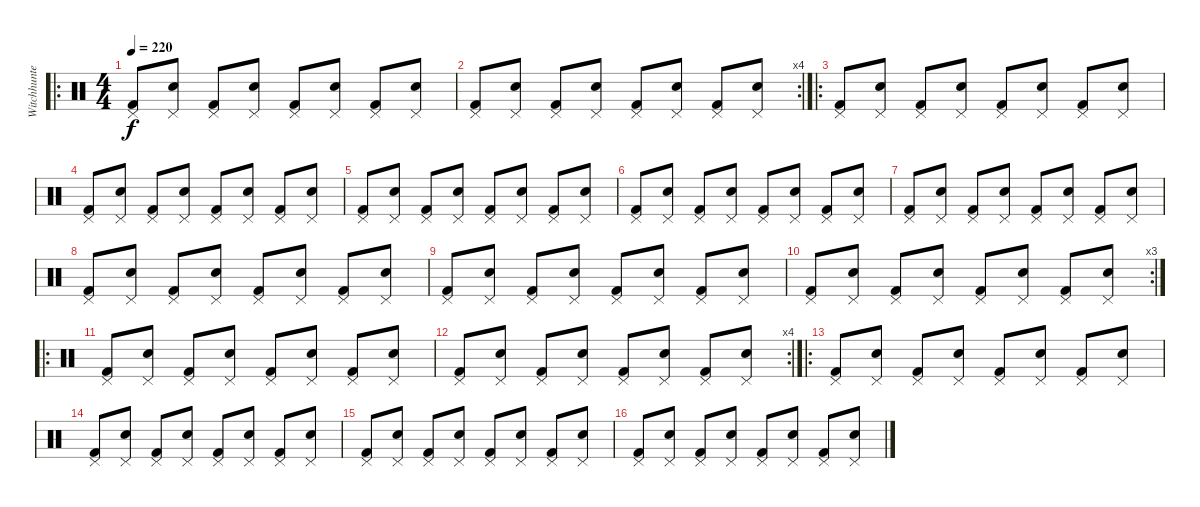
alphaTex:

\track ("Witchhunter" "Witchhunte") {instrument percussion}
\staff {score}
\articulation defaults
\ro
\ts (4 4)
\tempo 220
\clef neutral
\ks c
("Kick (hit) 2" "Pedal Hi-Hat (hit)").8{dy f} ("Snare (hit) 2" "Pedal Hi-Hat (hit)").8 ("Kick (hit) 2" "Pedal Hi-Hat (hit)").8 ("Snare (hit) 2" "Pedal Hi-Hat (hit)").8 ("Kick (hit) 2" "Pedal Hi-Hat (hit)").8 ("Snare (hit) 2" "Pedal Hi-Hat (hit)").8 ("Kick (hit) 2" "Pedal Hi-Hat (hit)").8 ("Snare (hit) 2" "Pedal Hi-Hat (hit)").8 |
\rc 4
("Kick (hit) 2" "Pedal Hi-Hat (hit)").8 ("Snare (hit) 2" "Pedal Hi-Hat (hit)").8 ("Kick (hit) 2" "Pedal Hi-Hat (hit)").8 ("Snare (hit) 2" "Pedal Hi-Hat (hit)").8 ("Kick (hit) 2" "Pedal Hi-Hat (hit)").8 ("Snare (hit) 2" "Pedal Hi-Hat (hit)").8 ("Kick (hit) 2" "Pedal Hi-Hat (hit)").8 ("Snare (hit) 2" "Pedal Hi-Hat (hit)").8 |
\ro
("Kick (hit) 2" "Pedal Hi-Hat (hit)").8 ("Snare (hit) 2" "Pedal Hi-Hat (hit)").8 ("Kick (hit) 2" "Pedal Hi-Hat (hit)").8 ("Snare (hit) 2" "Pedal Hi-Hat (hit)").8 ("Kick (hit) 2" "Pedal Hi-Hat (hit)").8 ("Snare (hit) 2" "Pedal Hi-Hat (hit)").8 ("Kick (hit) 2" "Pedal Hi-Hat (hit)").8 ("Snare (hit) 2" "Pedal Hi-Hat (hit)").8 |
("Kick (hit) 2" "Pedal Hi-Hat (hit)").8 ("Snare (hit) 2" "Pedal Hi-Hat (hit)").8 ("Kick (hit) 2" "Pedal Hi-Hat (hit)").8 ("Snare (hit) 2" "Pedal Hi-Hat (hit)").8 ("Kick (hit) 2" "Pedal Hi-Hat (hit)").8 ("Snare (hit) 2" "Pedal Hi-Hat (hit)").8 ("Kick (hit) 2" "Pedal Hi-Hat (hit)").8 ("Snare (hit) 2" "Pedal Hi-Hat (hit)").8 |
("Kick (hit) 2" "Pedal Hi-Hat (hit)").8 ("Snare (hit) 2" "Pedal Hi-Hat (hit)").8 ("Kick (hit) 2" "Pedal Hi-Hat (hit)").8 ("Snare (hit) 2" "Pedal Hi-Hat (hit)").8 ("Kick (hit) 2" "Pedal Hi-Hat (hit)").8 ("Snare (hit) 2" "Pedal Hi-Hat (hit)").8 ("Kick (hit) 2" "Pedal Hi-Hat (hit)").8 ("Snare (hit) 2" "Pedal Hi-Hat (hit)").8 |
("Kick (hit) 2" "Pedal Hi-Hat (hit)").8 ("Snare (hit) 2" "Pedal Hi-Hat (hit)").8 ("Kick (hit) 2" "Pedal Hi-Hat (hit)").8 ("Snare (hit) 2" "Pedal Hi-Hat (hit)").8 ("Kick (hit) 2" "Pedal Hi-Hat (hit)").8 ("Snare (hit) 2" "Pedal Hi-Hat (hit)").8 ("Kick (hit) 2" "Pedal Hi-Hat (hit)").8 ("Snare (hit) 2" "Pedal Hi-Hat (hit)").8 |
("Kick (hit) 2" "Pedal Hi-Hat (hit)").8 ("Snare (hit) 2" "Pedal Hi-Hat (hit)").8 ("Kick (hit) 2" "Pedal Hi-Hat (hit)").8 ("Snare (hit) 2" "Pedal Hi-Hat (hit)").8 ("Kick (hit) 2" "Pedal Hi-Hat (hit)").8 ("Snare (hit) 2" "Pedal Hi-Hat (hit)").8 ("Kick (hit) 2" "Pedal Hi-Hat (hit)").8 ("Snare (hit) 2" "Pedal Hi-Hat (hit)").8 |
("Kick (hit) 2" "Pedal Hi-Hat (hit)").8 ("Snare (hit) 2" "Pedal Hi-Hat (hit)").8 ("Kick (hit) 2" "Pedal Hi-Hat (hit)").8 ("Snare (hit) 2" "Pedal Hi-Hat (hit)").8 ("Kick (hit) 2" "Pedal Hi-Hat (hit)").8 ("Snare (hit) 2" "Pedal Hi-Hat (hit)").8 ("Kick (hit) 2" "Pedal Hi-Hat (hit)").8 ("Snare (hit) 2" "Pedal Hi-Hat (hit)").8 |
("Kick (hit) 2" "Pedal Hi-Hat (hit)").8 ("Snare (hit) 2" "Pedal Hi-Hat (hit)").8 ("Kick (hit) 2" "Pedal Hi-Hat (hit)").8 ("Snare (hit) 2" "Pedal Hi-Hat (hit)").8 ("Kick (hit) 2" "Pedal Hi-Hat (hit)").8 ("Snare (hit) 2" "Pedal Hi-Hat (hit)").8 ("Kick (hit) 2" "Pedal Hi-Hat (hit)").8 ("Snare (hit) 2" "Pedal Hi-Hat (hit)").8 |
\rc 3
("Kick (hit) 2" "Pedal Hi-Hat (hit)").8 ("Snare (hit) 2" "Pedal Hi-Hat (hit)").8 ("Kick (hit) 2" "Pedal Hi-Hat (hit)").8 ("Snare (hit) 2" "Pedal Hi-Hat (hit)").8 ("Kick (hit) 2" "Pedal Hi-Hat (hit)").8 ("Snare (hit) 2" "Pedal Hi-Hat (hit)").8 ("Kick (hit) 2" "Pedal Hi-Hat (hit)").8 ("Snare (hit) 2" "Pedal Hi-Hat (hit)").8 |
\ro
("Kick (hit) 2" "Pedal Hi-Hat (hit)").8 ("Snare (hit) 2" "Pedal Hi-Hat (hit)").8 ("Kick (hit) 2" "Pedal Hi-Hat (hit)").8 ("Snare (hit) 2" "Pedal Hi-Hat (hit)").8 ("Kick (hit) 2" "Pedal Hi-Hat (hit)").8 ("Snare (hit) 2" "Pedal Hi-Hat (hit)").8 ("Kick (hit) 2" "Pedal Hi-Hat (hit)").8 ("Snare (hit) 2" "Pedal Hi-Hat (hit)").8 |
\rc 4
("Kick (hit) 2" "Pedal Hi-Hat (hit)").8 ("Snare (hit) 2" "Pedal Hi-Hat (hit)").8 ("Kick (hit) 2" "Pedal Hi-Hat (hit)").8 ("Snare (hit) 2" "Pedal Hi-Hat (hit)").8 ("Kick (hit) 2" "Pedal Hi-Hat (hit)").8 ("Snare (hit) 2" "Pedal Hi-Hat (hit)").8 ("Kick (hit) 2" "Pedal Hi-Hat (hit)").8 ("Snare (hit) 2" "Pedal Hi-Hat (hit)").8 |
\ro
("Kick (hit) 2" "Pedal Hi-Hat (hit)").8 ("Snare (hit) 2" "Pedal Hi-Hat (hit)").8 ("Kick (hit) 2" "Pedal Hi-Hat (hit)").8 ("Snare (hit) 2" "Pedal Hi-Hat (hit)").8 ("Kick (hit) 2" "Pedal Hi-Hat (hit)").8 ("Snare (hit) 2" "Pedal Hi-Hat (hit)").8 ("Kick (hit) 2" "Pedal Hi-Hat (hit)").8 ("Snare (hit) 2" "Pedal Hi-Hat (hit)").8 |
("Kick (hit) 2" "Pedal Hi-Hat (hit)").8 ("Snare (hit) 2" "Pedal Hi-Hat (hit)").8 ("Kick (hit) 2" "Pedal Hi-Hat (hit)").8 ("Snare (hit) 2" "Pedal Hi-Hat (hit)").8 ("Kick (hit) 2" "Pedal Hi-Hat (hit)").8 ("Snare (hit) 2" "Pedal Hi-Hat (hit)").8 ("Kick (hit) 2" "Pedal Hi-Hat (hit)").8 ("Snare (hit) 2" "Pedal Hi-Hat (hit)").8 |
("Kick (hit) 2" "Pedal Hi-Hat (hit)").8 ("Snare (hit) 2" "Pedal Hi-Hat (hit)").8 ("Kick (hit) 2" "Pedal Hi-Hat (hit)").8 ("Snare (hit) 2" "Pedal Hi-Hat (hit)").8 ("Kick (hit) 2" "Pedal Hi-Hat (hit)").8 ("Snare (hit) 2" "Pedal Hi-Hat (hit)").8 ("Kick (hit) 2" "Pedal Hi-Hat (hit)").8 ("Snare (hit) 2" "Pedal Hi-Hat (hit)").8 |
("Kick (hit) 2" "Pedal Hi-Hat (hit)").8 ("Snare (hit) 2" "Pedal Hi-Hat (hit)").8 ("Kick (hit) 2" "Pedal Hi-Hat (hit)").8 ("Snare (hit) 2" "Pedal Hi-Hat (hit)").8 ("Kick (hit) 2" "Pedal Hi-Hat (hit)").8 ("Snare (hit) 2" "Pedal Hi-Hat (hit)").8 ("Kick (hit) 2" "Pedal Hi-Hat (hit)").8 ("Snare (hit) 2" "Pedal Hi-Hat (hit)").8
